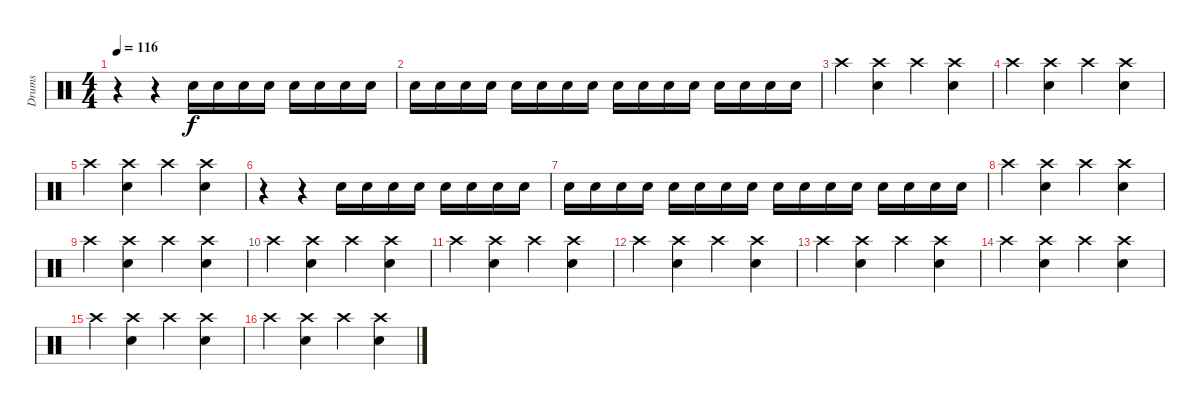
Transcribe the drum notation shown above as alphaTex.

\track ("Drums" "Drums") {instrument percussion}
\staff {score}
\articulation defaults
\ts (4 4)
\tempo 116
\clef neutral
\ks c
r.4{dy f} r.4 "Electric Snare (hit)".16 "Electric Snare (hit)".16 "Electric Snare (hit)".16 "Electric Snare (hit)".16 "Electric Snare (hit)".16 "Electric Snare (hit)".16 "Electric Snare (hit)".16 "Electric Snare (hit)".16 |
"Electric Snare (hit)".16 "Electric Snare (hit)".16 "Electric Snare (hit)".16 "Electric Snare (hit)".16 "Electric Snare (hit)".16 "Electric Snare (hit)".16 "Electric Snare (hit)".16 "Electric Snare (hit)".16 "Electric Snare (hit)".16 "Electric Snare (hit)".16 "Electric Snare (hit)".16 "Electric Snare (hit)".16 "Electric Snare (hit)".16 "Electric Snare (hit)".16 "Electric Snare (hit)".16 "Electric Snare (hit)".16 |
"Crash high (hit)".4 ("Crash high (hit)" "Electric Snare (hit)").4 "Crash high (hit)".4 ("Crash high (hit)" "Electric Snare (hit)").4 |
"Crash high (hit)".4 ("Crash high (hit)" "Electric Snare (hit)").4 "Crash high (hit)".4 ("Crash high (hit)" "Electric Snare (hit)").4 |
"Crash high (hit)".4 ("Crash high (hit)" "Electric Snare (hit)").4 "Crash high (hit)".4 ("Crash high (hit)" "Electric Snare (hit)").4 |
r.4 r.4 "Electric Snare (hit)".16 "Electric Snare (hit)".16 "Electric Snare (hit)".16 "Electric Snare (hit)".16 "Electric Snare (hit)".16 "Electric Snare (hit)".16 "Electric Snare (hit)".16 "Electric Snare (hit)".16 |
"Electric Snare (hit)".16 "Electric Snare (hit)".16 "Electric Snare (hit)".16 "Electric Snare (hit)".16 "Electric Snare (hit)".16 "Electric Snare (hit)".16 "Electric Snare (hit)".16 "Electric Snare (hit)".16 "Electric Snare (hit)".16 "Electric Snare (hit)".16 "Electric Snare (hit)".16 "Electric Snare (hit)".16 "Electric Snare (hit)".16 "Electric Snare (hit)".16 "Electric Snare (hit)".16 "Electric Snare (hit)".16 |
"Crash high (hit)".4 ("Crash high (hit)" "Electric Snare (hit)").4 "Crash high (hit)".4 ("Crash high (hit)" "Electric Snare (hit)").4 |
"Crash high (hit)".4 ("Crash high (hit)" "Electric Snare (hit)").4 "Crash high (hit)".4 ("Crash high (hit)" "Electric Snare (hit)").4 |
"Crash high (hit)".4 ("Crash high (hit)" "Electric Snare (hit)").4 "Crash high (hit)".4 ("Crash high (hit)" "Electric Snare (hit)").4 |
"Crash high (hit)".4 ("Crash high (hit)" "Electric Snare (hit)").4 "Crash high (hit)".4 ("Crash high (hit)" "Electric Snare (hit)").4 |
"Crash high (hit)".4 ("Crash high (hit)" "Electric Snare (hit)").4 "Crash high (hit)".4 ("Crash high (hit)" "Electric Snare (hit)").4 |
"Crash high (hit)".4 ("Crash high (hit)" "Electric Snare (hit)").4 "Crash high (hit)".4 ("Crash high (hit)" "Electric Snare (hit)").4 |
"Crash high (hit)".4 ("Crash high (hit)" "Electric Snare (hit)").4 "Crash high (hit)".4 ("Crash high (hit)" "Electric Snare (hit)").4 |
"Crash high (hit)".4 ("Crash high (hit)" "Electric Snare (hit)").4 "Crash high (hit)".4 ("Crash high (hit)" "Electric Snare (hit)").4 |
"Crash high (hit)".4 ("Crash high (hit)" "Electric Snare (hit)").4 "Crash high (hit)".4 ("Crash high (hit)" "Electric Snare (hit)").4
